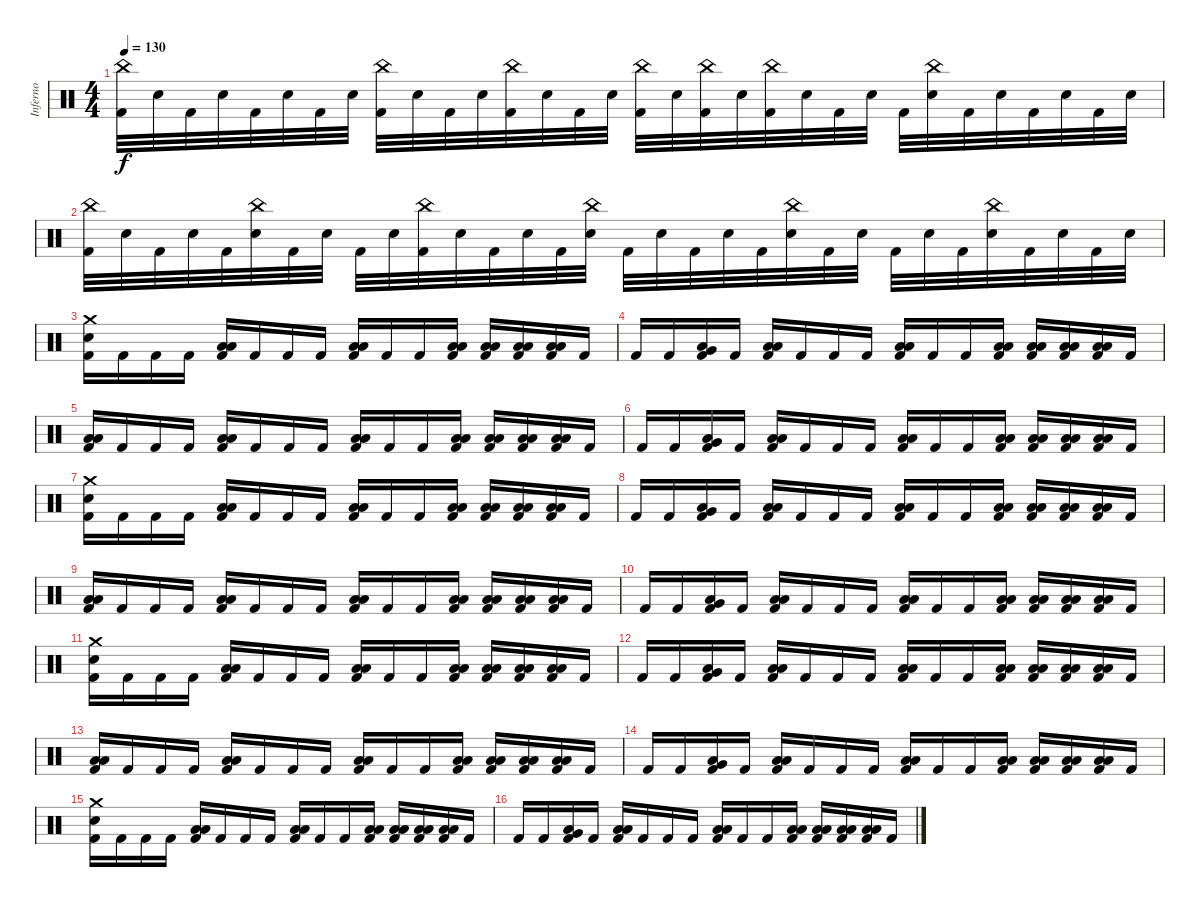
\track ("Inferno" "Inferno") {instrument percussion}
\staff {score}
\articulation defaults
\ts (4 4)
\tempo 130
\clef neutral
\ks c
("China (hit)" "Kick (hit) 2").32{dy f} "Snare (hit) 2".32 "Kick (hit) 2".32 "Snare (hit) 2".32 "Kick (hit) 2".32 "Snare (hit) 2".32 "Kick (hit) 2".32 "Snare (hit) 2".32 ("China (hit)" "Kick (hit) 2").32 "Snare (hit) 2".32 "Kick (hit) 2".32 "Snare (hit) 2".32 ("China (hit)" "Kick (hit) 2").32 "Snare (hit) 2".32 "Kick (hit) 2".32 "Snare (hit) 2".32 ("China (hit)" "Kick (hit) 2").32 "Snare (hit) 2".32 ("China (hit)" "Kick (hit) 2").32 "Snare (hit) 2".32 ("China (hit)" "Kick (hit) 2").32 "Snare (hit) 2".32 "Kick (hit) 2".32 "Snare (hit) 2".32 "Kick (hit) 2".32 ("China (hit)" "Snare (hit) 2").32 "Kick (hit) 2".32 "Snare (hit) 2".32 "Kick (hit) 2".32 "Snare (hit) 2".32 "Kick (hit) 2".32 "Snare (hit) 2".32 |
("China (hit)" "Kick (hit) 2").32 "Snare (hit) 2".32 "Kick (hit) 2".32 "Snare (hit) 2".32 "Kick (hit) 2".32 ("China (hit)" "Snare (hit) 2").32 "Kick (hit) 2".32 "Snare (hit) 2".32 "Kick (hit) 2".32 "Snare (hit) 2".32 ("China (hit)" "Kick (hit) 2").32 "Snare (hit) 2".32 "Kick (hit) 2".32 "Snare (hit) 2".32 "Kick (hit) 2".32 ("China (hit)" "Snare (hit) 2").32 "Kick (hit) 2".32 "Snare (hit) 2".32 "Kick (hit) 2".32 "Snare (hit) 2".32 "Kick (hit) 2".32 ("China (hit)" "Snare (hit) 2").32 "Kick (hit) 2".32 "Snare (hit) 2".32 "Kick (hit) 2".32 "Snare (hit) 2".32 "Kick (hit) 2".32 ("China (hit)" "Snare (hit) 2").32 "Kick (hit) 2".32 "Snare (hit) 2".32 "Kick (hit) 2".32 "Snare (hit) 2".32 |
("Crash medium (hit)" "Snare (hit) 2" "Kick (hit) 2").16 "Kick (hit) 2".16 "Kick (hit) 2".16 "Kick (hit) 2".16 ("Low Tom (hit)" "Low Floor Tom (hit)" "Kick (hit) 2").16 "Kick (hit) 2".16 "Kick (hit) 2".16 "Kick (hit) 2".16 ("Low Tom (hit)" "Low Floor Tom (hit)" "Kick (hit) 2").16 "Kick (hit) 2".16 "Kick (hit) 2".16 ("Low Tom (hit)" "Low Floor Tom (hit)" "Kick (hit) 2").16 ("Low Tom (hit)" "Low Floor Tom (hit)" "Kick (hit) 2").16 ("Low Tom (hit)" "Low Floor Tom (hit)" "Kick (hit) 2").16 ("Low Tom (hit)" "Low Floor Tom (hit)" "Kick (hit) 2").16 "Kick (hit) 2".16 |
"Kick (hit) 2".16 "Kick (hit) 2".16 ("Very Low Tom (hit)" "Low Floor Tom (hit)" "Kick (hit) 2").16 "Kick (hit) 2".16 ("Low Tom (hit)" "Low Floor Tom (hit)" "Kick (hit) 2").16 "Kick (hit) 2".16 "Kick (hit) 2".16 "Kick (hit) 2".16 ("Low Tom (hit)" "Low Floor Tom (hit)" "Kick (hit) 2").16 "Kick (hit) 2".16 "Kick (hit) 2".16 ("Low Tom (hit)" "Low Floor Tom (hit)" "Kick (hit) 2").16 ("Low Tom (hit)" "Low Floor Tom (hit)" "Kick (hit) 2").16 ("Low Tom (hit)" "Low Floor Tom (hit)" "Kick (hit) 2").16 ("Low Tom (hit)" "Low Floor Tom (hit)" "Kick (hit) 2").16 "Kick (hit) 2".16 |
("Low Tom (hit)" "Low Floor Tom (hit)" "Kick (hit) 2").16 "Kick (hit) 2".16 "Kick (hit) 2".16 "Kick (hit) 2".16 ("Low Tom (hit)" "Low Floor Tom (hit)" "Kick (hit) 2").16 "Kick (hit) 2".16 "Kick (hit) 2".16 "Kick (hit) 2".16 ("Low Tom (hit)" "Low Floor Tom (hit)" "Kick (hit) 2").16 "Kick (hit) 2".16 "Kick (hit) 2".16 ("Low Tom (hit)" "Low Floor Tom (hit)" "Kick (hit) 2").16 ("Low Tom (hit)" "Low Floor Tom (hit)" "Kick (hit) 2").16 ("Low Tom (hit)" "Low Floor Tom (hit)" "Kick (hit) 2").16 ("Low Tom (hit)" "Low Floor Tom (hit)" "Kick (hit) 2").16 "Kick (hit) 2".16 |
"Kick (hit) 2".16 "Kick (hit) 2".16 ("Very Low Tom (hit)" "Low Floor Tom (hit)" "Kick (hit) 2").16 "Kick (hit) 2".16 ("Low Tom (hit)" "Low Floor Tom (hit)" "Kick (hit) 2").16 "Kick (hit) 2".16 "Kick (hit) 2".16 "Kick (hit) 2".16 ("Low Tom (hit)" "Low Floor Tom (hit)" "Kick (hit) 2").16 "Kick (hit) 2".16 "Kick (hit) 2".16 ("Low Tom (hit)" "Low Floor Tom (hit)" "Kick (hit) 2").16 ("Low Tom (hit)" "Low Floor Tom (hit)" "Kick (hit) 2").16 ("Low Tom (hit)" "Low Floor Tom (hit)" "Kick (hit) 2").16 ("Low Tom (hit)" "Low Floor Tom (hit)" "Kick (hit) 2").16 "Kick (hit) 2".16 |
("Crash medium (hit)" "Snare (hit) 2" "Kick (hit) 2").16 "Kick (hit) 2".16 "Kick (hit) 2".16 "Kick (hit) 2".16 ("Low Tom (hit)" "Low Floor Tom (hit)" "Kick (hit) 2").16 "Kick (hit) 2".16 "Kick (hit) 2".16 "Kick (hit) 2".16 ("Low Tom (hit)" "Low Floor Tom (hit)" "Kick (hit) 2").16 "Kick (hit) 2".16 "Kick (hit) 2".16 ("Low Tom (hit)" "Low Floor Tom (hit)" "Kick (hit) 2").16 ("Low Tom (hit)" "Low Floor Tom (hit)" "Kick (hit) 2").16 ("Low Tom (hit)" "Low Floor Tom (hit)" "Kick (hit) 2").16 ("Low Tom (hit)" "Low Floor Tom (hit)" "Kick (hit) 2").16 "Kick (hit) 2".16 |
"Kick (hit) 2".16 "Kick (hit) 2".16 ("Very Low Tom (hit)" "Low Floor Tom (hit)" "Kick (hit) 2").16 "Kick (hit) 2".16 ("Low Tom (hit)" "Low Floor Tom (hit)" "Kick (hit) 2").16 "Kick (hit) 2".16 "Kick (hit) 2".16 "Kick (hit) 2".16 ("Low Tom (hit)" "Low Floor Tom (hit)" "Kick (hit) 2").16 "Kick (hit) 2".16 "Kick (hit) 2".16 ("Low Tom (hit)" "Low Floor Tom (hit)" "Kick (hit) 2").16 ("Low Tom (hit)" "Low Floor Tom (hit)" "Kick (hit) 2").16 ("Low Tom (hit)" "Low Floor Tom (hit)" "Kick (hit) 2").16 ("Low Tom (hit)" "Low Floor Tom (hit)" "Kick (hit) 2").16 "Kick (hit) 2".16 |
("Low Tom (hit)" "Low Floor Tom (hit)" "Kick (hit) 2").16 "Kick (hit) 2".16 "Kick (hit) 2".16 "Kick (hit) 2".16 ("Low Tom (hit)" "Low Floor Tom (hit)" "Kick (hit) 2").16 "Kick (hit) 2".16 "Kick (hit) 2".16 "Kick (hit) 2".16 ("Low Tom (hit)" "Low Floor Tom (hit)" "Kick (hit) 2").16 "Kick (hit) 2".16 "Kick (hit) 2".16 ("Low Tom (hit)" "Low Floor Tom (hit)" "Kick (hit) 2").16 ("Low Tom (hit)" "Low Floor Tom (hit)" "Kick (hit) 2").16 ("Low Tom (hit)" "Low Floor Tom (hit)" "Kick (hit) 2").16 ("Low Tom (hit)" "Low Floor Tom (hit)" "Kick (hit) 2").16 "Kick (hit) 2".16 |
"Kick (hit) 2".16 "Kick (hit) 2".16 ("Very Low Tom (hit)" "Low Floor Tom (hit)" "Kick (hit) 2").16 "Kick (hit) 2".16 ("Low Tom (hit)" "Low Floor Tom (hit)" "Kick (hit) 2").16 "Kick (hit) 2".16 "Kick (hit) 2".16 "Kick (hit) 2".16 ("Low Tom (hit)" "Low Floor Tom (hit)" "Kick (hit) 2").16 "Kick (hit) 2".16 "Kick (hit) 2".16 ("Low Tom (hit)" "Low Floor Tom (hit)" "Kick (hit) 2").16 ("Low Tom (hit)" "Low Floor Tom (hit)" "Kick (hit) 2").16 ("Low Tom (hit)" "Low Floor Tom (hit)" "Kick (hit) 2").16 ("Low Tom (hit)" "Low Floor Tom (hit)" "Kick (hit) 2").16 "Kick (hit) 2".16 |
("Crash medium (hit)" "Snare (hit) 2" "Kick (hit) 2").16 "Kick (hit) 2".16 "Kick (hit) 2".16 "Kick (hit) 2".16 ("Low Tom (hit)" "Low Floor Tom (hit)" "Kick (hit) 2").16 "Kick (hit) 2".16 "Kick (hit) 2".16 "Kick (hit) 2".16 ("Low Tom (hit)" "Low Floor Tom (hit)" "Kick (hit) 2").16 "Kick (hit) 2".16 "Kick (hit) 2".16 ("Low Tom (hit)" "Low Floor Tom (hit)" "Kick (hit) 2").16 ("Low Tom (hit)" "Low Floor Tom (hit)" "Kick (hit) 2").16 ("Low Tom (hit)" "Low Floor Tom (hit)" "Kick (hit) 2").16 ("Low Tom (hit)" "Low Floor Tom (hit)" "Kick (hit) 2").16 "Kick (hit) 2".16 |
"Kick (hit) 2".16 "Kick (hit) 2".16 ("Very Low Tom (hit)" "Low Floor Tom (hit)" "Kick (hit) 2").16 "Kick (hit) 2".16 ("Low Tom (hit)" "Low Floor Tom (hit)" "Kick (hit) 2").16 "Kick (hit) 2".16 "Kick (hit) 2".16 "Kick (hit) 2".16 ("Low Tom (hit)" "Low Floor Tom (hit)" "Kick (hit) 2").16 "Kick (hit) 2".16 "Kick (hit) 2".16 ("Low Tom (hit)" "Low Floor Tom (hit)" "Kick (hit) 2").16 ("Low Tom (hit)" "Low Floor Tom (hit)" "Kick (hit) 2").16 ("Low Tom (hit)" "Low Floor Tom (hit)" "Kick (hit) 2").16 ("Low Tom (hit)" "Low Floor Tom (hit)" "Kick (hit) 2").16 "Kick (hit) 2".16 |
("Low Tom (hit)" "Low Floor Tom (hit)" "Kick (hit) 2").16 "Kick (hit) 2".16 "Kick (hit) 2".16 "Kick (hit) 2".16 ("Low Tom (hit)" "Low Floor Tom (hit)" "Kick (hit) 2").16 "Kick (hit) 2".16 "Kick (hit) 2".16 "Kick (hit) 2".16 ("Low Tom (hit)" "Low Floor Tom (hit)" "Kick (hit) 2").16 "Kick (hit) 2".16 "Kick (hit) 2".16 ("Low Tom (hit)" "Low Floor Tom (hit)" "Kick (hit) 2").16 ("Low Tom (hit)" "Low Floor Tom (hit)" "Kick (hit) 2").16 ("Low Tom (hit)" "Low Floor Tom (hit)" "Kick (hit) 2").16 ("Low Tom (hit)" "Low Floor Tom (hit)" "Kick (hit) 2").16 "Kick (hit) 2".16 |
"Kick (hit) 2".16 "Kick (hit) 2".16 ("Very Low Tom (hit)" "Low Floor Tom (hit)" "Kick (hit) 2").16 "Kick (hit) 2".16 ("Low Tom (hit)" "Low Floor Tom (hit)" "Kick (hit) 2").16 "Kick (hit) 2".16 "Kick (hit) 2".16 "Kick (hit) 2".16 ("Low Tom (hit)" "Low Floor Tom (hit)" "Kick (hit) 2").16 "Kick (hit) 2".16 "Kick (hit) 2".16 ("Low Tom (hit)" "Low Floor Tom (hit)" "Kick (hit) 2").16 ("Low Tom (hit)" "Low Floor Tom (hit)" "Kick (hit) 2").16 ("Low Tom (hit)" "Low Floor Tom (hit)" "Kick (hit) 2").16 ("Low Tom (hit)" "Low Floor Tom (hit)" "Kick (hit) 2").16 "Kick (hit) 2".16 |
("Crash medium (hit)" "Snare (hit) 2" "Kick (hit) 2").16 "Kick (hit) 2".16 "Kick (hit) 2".16 "Kick (hit) 2".16 ("Low Tom (hit)" "Low Floor Tom (hit)" "Kick (hit) 2").16 "Kick (hit) 2".16 "Kick (hit) 2".16 "Kick (hit) 2".16 ("Low Tom (hit)" "Low Floor Tom (hit)" "Kick (hit) 2").16 "Kick (hit) 2".16 "Kick (hit) 2".16 ("Low Tom (hit)" "Low Floor Tom (hit)" "Kick (hit) 2").16 ("Low Tom (hit)" "Low Floor Tom (hit)" "Kick (hit) 2").16 ("Low Tom (hit)" "Low Floor Tom (hit)" "Kick (hit) 2").16 ("Low Tom (hit)" "Low Floor Tom (hit)" "Kick (hit) 2").16 "Kick (hit) 2".16 |
"Kick (hit) 2".16 "Kick (hit) 2".16 ("Very Low Tom (hit)" "Low Floor Tom (hit)" "Kick (hit) 2").16 "Kick (hit) 2".16 ("Low Tom (hit)" "Low Floor Tom (hit)" "Kick (hit) 2").16 "Kick (hit) 2".16 "Kick (hit) 2".16 "Kick (hit) 2".16 ("Low Tom (hit)" "Low Floor Tom (hit)" "Kick (hit) 2").16 "Kick (hit) 2".16 "Kick (hit) 2".16 ("Low Tom (hit)" "Low Floor Tom (hit)" "Kick (hit) 2").16 ("Low Tom (hit)" "Low Floor Tom (hit)" "Kick (hit) 2").16 ("Low Tom (hit)" "Low Floor Tom (hit)" "Kick (hit) 2").16 ("Low Tom (hit)" "Low Floor Tom (hit)" "Kick (hit) 2").16 "Kick (hit) 2".16
